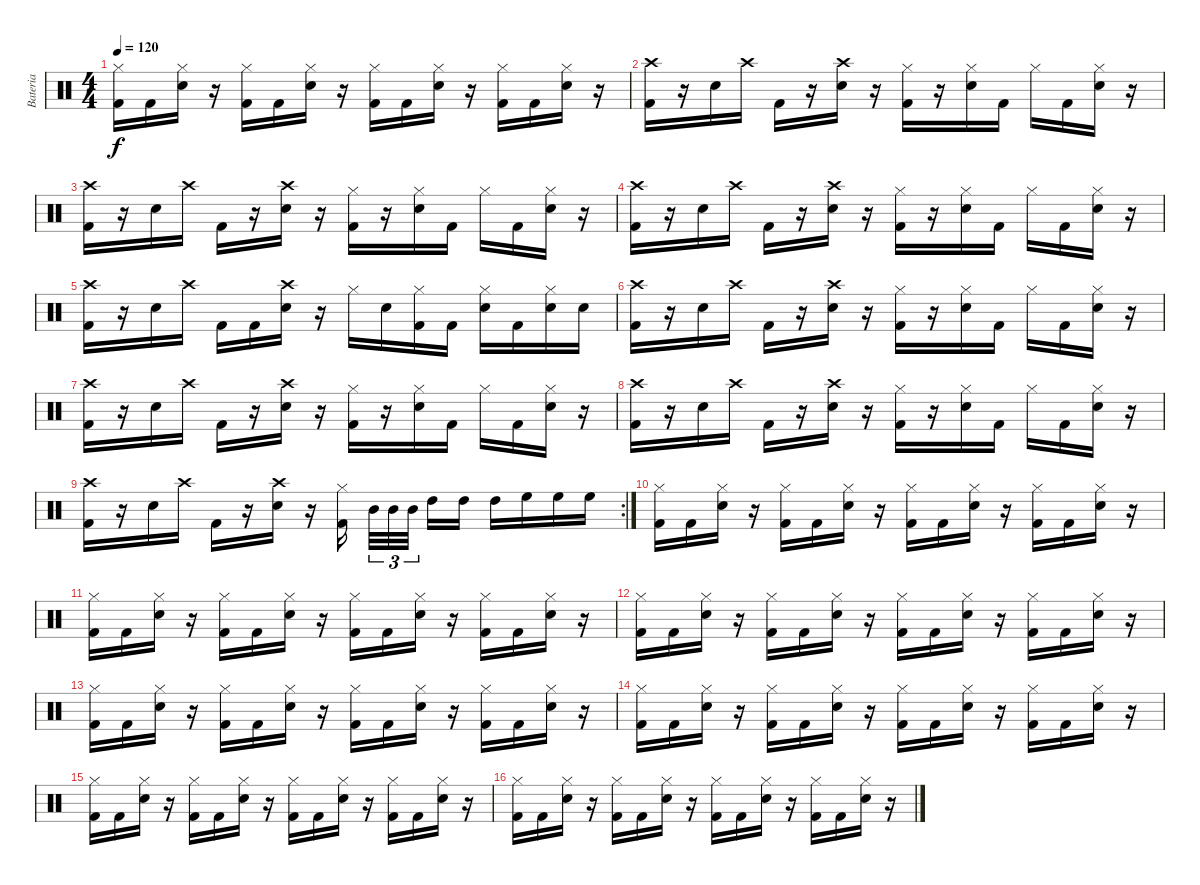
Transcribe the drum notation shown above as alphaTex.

\track ("Bateria" "Bateria") {instrument percussion}
\staff {score}
\articulation defaults
\ts (4 4)
\tempo 120
\clef neutral
\ks c
("Kick (hit) 2" "Hi-Hat (closed)").16{dy f} "Kick (hit) 2".16 ("Snare (hit) 2" "Hi-Hat (closed)").16 r.16 ("Kick (hit) 2" "Hi-Hat (closed)").16 "Kick (hit) 2".16 ("Snare (hit) 2" "Hi-Hat (closed)").16 r.16 ("Kick (hit) 2" "Hi-Hat (closed)").16 "Kick (hit) 2".16 ("Snare (hit) 2" "Hi-Hat (closed)").16 r.16 ("Kick (hit) 2" "Hi-Hat (closed)").16 "Kick (hit) 2".16 ("Snare (hit) 2" "Hi-Hat (closed)").16 r.16 |
("Kick (hit) 2" "Crash high (hit)").16 r.16 "Snare (hit) 2".16 "Crash high (hit)".16 "Kick (hit) 2".16 r.16 ("Snare (hit) 2" "Crash high (hit)").16 r.16 ("Kick (hit) 2" "Hi-Hat (closed)").16 r.16 ("Snare (hit) 2" "Hi-Hat (closed)").16 "Kick (hit) 2".16 "Hi-Hat (closed)".16 "Kick (hit) 2".16 ("Snare (hit) 2" "Hi-Hat (closed)").16 r.16 |
("Kick (hit) 2" "Crash high (hit)").16 r.16 "Snare (hit) 2".16 "Crash high (hit)".16 "Kick (hit) 2".16 r.16 ("Snare (hit) 2" "Crash high (hit)").16 r.16 ("Kick (hit) 2" "Hi-Hat (closed)").16 r.16 ("Snare (hit) 2" "Hi-Hat (closed)").16 "Kick (hit) 2".16 "Hi-Hat (closed)".16 "Kick (hit) 2".16 ("Snare (hit) 2" "Hi-Hat (closed)").16 r.16 |
("Kick (hit) 2" "Crash high (hit)").16 r.16 "Snare (hit) 2".16 "Crash high (hit)".16 "Kick (hit) 2".16 r.16 ("Snare (hit) 2" "Crash high (hit)").16 r.16 ("Kick (hit) 2" "Hi-Hat (closed)").16 r.16 ("Snare (hit) 2" "Hi-Hat (closed)").16 "Kick (hit) 2".16 "Hi-Hat (closed)".16 "Kick (hit) 2".16 ("Snare (hit) 2" "Hi-Hat (closed)").16 r.16 |
("Kick (hit) 2" "Crash high (hit)").16 r.16 "Snare (hit) 2".16 "Crash high (hit)".16 "Kick (hit) 2".16 "Kick (hit) 2".16 ("Snare (hit) 2" "Crash high (hit)").16 r.16 "Hi-Hat (closed)".16 "Snare (hit) 2".16 ("Kick (hit) 2" "Hi-Hat (closed)").16 "Kick (hit) 2".16 ("Snare (hit) 2" "Hi-Hat (closed)").16 "Kick (hit) 2".16 ("Snare (hit) 2" "Hi-Hat (closed)").16 "Snare (hit) 2".16 |
("Kick (hit) 2" "Crash high (hit)").16 r.16 "Snare (hit) 2".16 "Crash high (hit)".16 "Kick (hit) 2".16 r.16 ("Snare (hit) 2" "Crash high (hit)").16 r.16 ("Kick (hit) 2" "Hi-Hat (closed)").16 r.16 ("Snare (hit) 2" "Hi-Hat (closed)").16 "Kick (hit) 2".16 "Hi-Hat (closed)".16 "Kick (hit) 2".16 ("Snare (hit) 2" "Hi-Hat (closed)").16 r.16 |
("Kick (hit) 2" "Crash high (hit)").16 r.16 "Snare (hit) 2".16 "Crash high (hit)".16 "Kick (hit) 2".16 r.16 ("Snare (hit) 2" "Crash high (hit)").16 r.16 ("Kick (hit) 2" "Hi-Hat (closed)").16 r.16 ("Snare (hit) 2" "Hi-Hat (closed)").16 "Kick (hit) 2".16 "Hi-Hat (closed)".16 "Kick (hit) 2".16 ("Snare (hit) 2" "Hi-Hat (closed)").16 r.16 |
("Kick (hit) 2" "Crash high (hit)").16 r.16 "Snare (hit) 2".16 "Crash high (hit)".16 "Kick (hit) 2".16 r.16 ("Snare (hit) 2" "Crash high (hit)").16 r.16 ("Kick (hit) 2" "Hi-Hat (closed)").16 r.16 ("Snare (hit) 2" "Hi-Hat (closed)").16 "Kick (hit) 2".16 "Hi-Hat (closed)".16 "Kick (hit) 2".16 ("Snare (hit) 2" "Hi-Hat (closed)").16 r.16 |
\rc 2
("Kick (hit) 2" "Crash high (hit)").16 r.16 "Snare (hit) 2".16 "Crash high (hit)".16 "Kick (hit) 2".16 r.16 ("Snare (hit) 2" "Crash high (hit)").16 r.16 ("Kick (hit) 2" "Hi-Hat (closed)").16{beam splitsecondary} "Mid Tom (hit)".32{tu (3 2)} "Mid Tom (hit)".32{tu (3 2)} "Mid Tom (hit)".32{tu (3 2) beam splitsecondary} "High Tom (hit)".16 "High Tom (hit)".16 "High Tom (hit)".16 "High Floor Tom (hit)".16 "High Floor Tom (hit)".16 "High Floor Tom (hit)".16 |
("Kick (hit) 2" "Hi-Hat (closed)").16 "Kick (hit) 2".16 ("Snare (hit) 2" "Hi-Hat (closed)").16 r.16 ("Kick (hit) 2" "Hi-Hat (closed)").16 "Kick (hit) 2".16 ("Snare (hit) 2" "Hi-Hat (closed)").16 r.16 ("Kick (hit) 2" "Hi-Hat (closed)").16 "Kick (hit) 2".16 ("Snare (hit) 2" "Hi-Hat (closed)").16 r.16 ("Kick (hit) 2" "Hi-Hat (closed)").16 "Kick (hit) 2".16 ("Snare (hit) 2" "Hi-Hat (closed)").16 r.16 |
("Kick (hit) 2" "Hi-Hat (closed)").16 "Kick (hit) 2".16 ("Snare (hit) 2" "Hi-Hat (closed)").16 r.16 ("Kick (hit) 2" "Hi-Hat (closed)").16 "Kick (hit) 2".16 ("Snare (hit) 2" "Hi-Hat (closed)").16 r.16 ("Kick (hit) 2" "Hi-Hat (closed)").16 "Kick (hit) 2".16 ("Snare (hit) 2" "Hi-Hat (closed)").16 r.16 ("Kick (hit) 2" "Hi-Hat (closed)").16 "Kick (hit) 2".16 ("Snare (hit) 2" "Hi-Hat (closed)").16 r.16 |
("Kick (hit) 2" "Hi-Hat (closed)").16 "Kick (hit) 2".16 ("Snare (hit) 2" "Hi-Hat (closed)").16 r.16 ("Kick (hit) 2" "Hi-Hat (closed)").16 "Kick (hit) 2".16 ("Snare (hit) 2" "Hi-Hat (closed)").16 r.16 ("Kick (hit) 2" "Hi-Hat (closed)").16 "Kick (hit) 2".16 ("Snare (hit) 2" "Hi-Hat (closed)").16 r.16 ("Kick (hit) 2" "Hi-Hat (closed)").16 "Kick (hit) 2".16 ("Snare (hit) 2" "Hi-Hat (closed)").16 r.16 |
("Kick (hit) 2" "Hi-Hat (closed)").16 "Kick (hit) 2".16 ("Snare (hit) 2" "Hi-Hat (closed)").16 r.16 ("Kick (hit) 2" "Hi-Hat (closed)").16 "Kick (hit) 2".16 ("Snare (hit) 2" "Hi-Hat (closed)").16 r.16 ("Kick (hit) 2" "Hi-Hat (closed)").16 "Kick (hit) 2".16 ("Snare (hit) 2" "Hi-Hat (closed)").16 r.16 ("Kick (hit) 2" "Hi-Hat (closed)").16 "Kick (hit) 2".16 ("Snare (hit) 2" "Hi-Hat (closed)").16 r.16 |
("Kick (hit) 2" "Hi-Hat (closed)").16 "Kick (hit) 2".16 ("Snare (hit) 2" "Hi-Hat (closed)").16 r.16 ("Kick (hit) 2" "Hi-Hat (closed)").16 "Kick (hit) 2".16 ("Snare (hit) 2" "Hi-Hat (closed)").16 r.16 ("Kick (hit) 2" "Hi-Hat (closed)").16 "Kick (hit) 2".16 ("Snare (hit) 2" "Hi-Hat (closed)").16 r.16 ("Kick (hit) 2" "Hi-Hat (closed)").16 "Kick (hit) 2".16 ("Snare (hit) 2" "Hi-Hat (closed)").16 r.16 |
("Kick (hit) 2" "Hi-Hat (closed)").16 "Kick (hit) 2".16 ("Snare (hit) 2" "Hi-Hat (closed)").16 r.16 ("Kick (hit) 2" "Hi-Hat (closed)").16 "Kick (hit) 2".16 ("Snare (hit) 2" "Hi-Hat (closed)").16 r.16 ("Kick (hit) 2" "Hi-Hat (closed)").16 "Kick (hit) 2".16 ("Snare (hit) 2" "Hi-Hat (closed)").16 r.16 ("Kick (hit) 2" "Hi-Hat (closed)").16 "Kick (hit) 2".16 ("Snare (hit) 2" "Hi-Hat (closed)").16 r.16 |
("Kick (hit) 2" "Hi-Hat (closed)").16 "Kick (hit) 2".16 ("Snare (hit) 2" "Hi-Hat (closed)").16 r.16 ("Kick (hit) 2" "Hi-Hat (closed)").16 "Kick (hit) 2".16 ("Snare (hit) 2" "Hi-Hat (closed)").16 r.16 ("Kick (hit) 2" "Hi-Hat (closed)").16 "Kick (hit) 2".16 ("Snare (hit) 2" "Hi-Hat (closed)").16 r.16 ("Kick (hit) 2" "Hi-Hat (closed)").16 "Kick (hit) 2".16 ("Snare (hit) 2" "Hi-Hat (closed)").16 r.16
